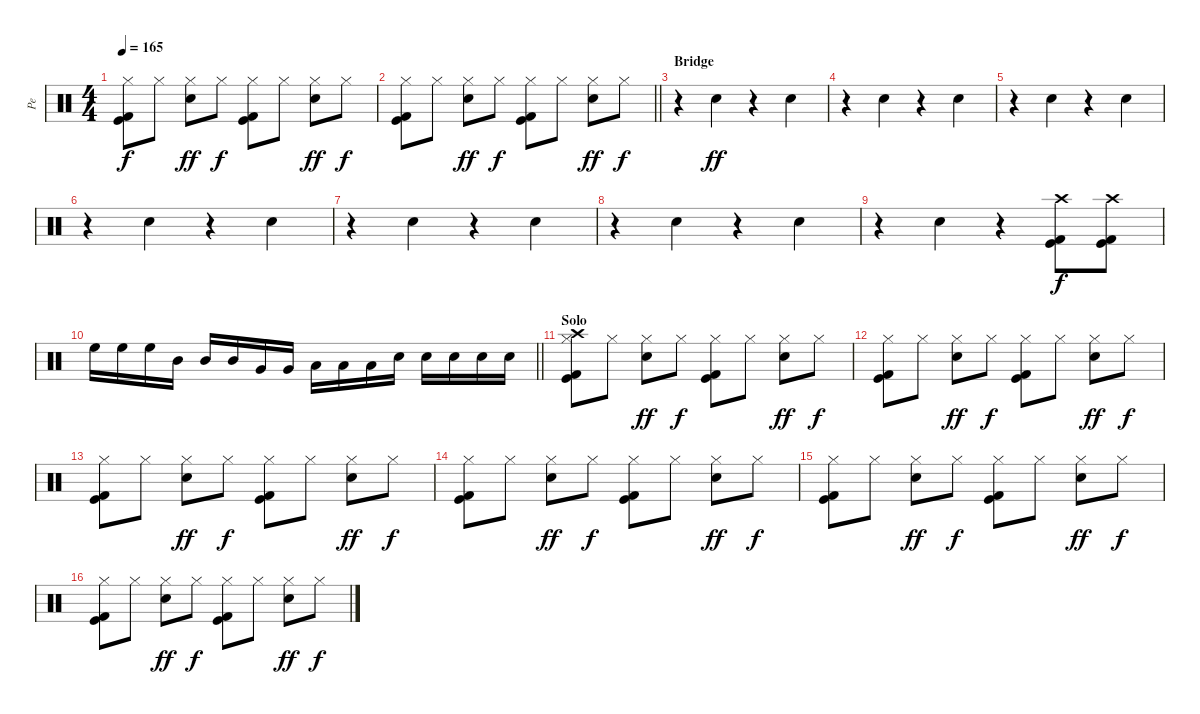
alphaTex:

\track ("Pe" "Pe") {instrument percussion}
\staff {score}
\articulation defaults
\ts (4 4)
\tempo 165
\clef neutral
\ks c
("Kick (hit)" "Hi-Hat (closed)" "Kick (hit) 2").8{dy f} "Hi-Hat (closed)".8 ("Electric Snare (hit)" "Hi-Hat (closed)").8{dy ff} "Hi-Hat (closed)".8{dy f} ("Kick (hit)" "Hi-Hat (closed)" "Kick (hit) 2").8 "Hi-Hat (closed)".8 ("Electric Snare (hit)" "Hi-Hat (closed)").8{dy ff} "Hi-Hat (closed)".8{dy f} |
\barLineRight lightlight
("Kick (hit)" "Hi-Hat (closed)" "Kick (hit) 2").8 "Hi-Hat (closed)".8 ("Electric Snare (hit)" "Hi-Hat (closed)").8{dy ff} "Hi-Hat (closed)".8{dy f} ("Kick (hit)" "Hi-Hat (closed)" "Kick (hit) 2").8 "Hi-Hat (closed)".8 ("Electric Snare (hit)" "Hi-Hat (closed)").8{dy ff} "Hi-Hat (closed)".8{dy f} |
\section ("" "Bridge")
r.4 "Electric Snare (hit)".4{dy ff} r.4 "Electric Snare (hit)".4 |
r.4 "Electric Snare (hit)".4 r.4 "Electric Snare (hit)".4 |
r.4 "Electric Snare (hit)".4 r.4 "Electric Snare (hit)".4 |
r.4 "Electric Snare (hit)".4 r.4 "Electric Snare (hit)".4 |
r.4 "Electric Snare (hit)".4 r.4 "Electric Snare (hit)".4 |
r.4 "Electric Snare (hit)".4 r.4 "Electric Snare (hit)".4 |
r.4 "Electric Snare (hit)".4 r.4 ("Crash high (hit)" "Kick (hit)" "Kick (hit) 2").8{dy f} ("Crash high (hit)" "Kick (hit)" "Kick (hit) 2").8 |
\barLineRight lightlight "High Floor Tom (hit)".16 "High Floor Tom (hit)".16 "High Floor Tom (hit)".16 "Mid Tom (hit)".16 "Mid Tom (hit)".16 "Mid Tom (hit)".16 "Very Low Tom (hit)".16 "Very Low Tom (hit)".16 "Low Floor Tom (hit)".16 "Low Floor Tom (hit)".16 "Low Floor Tom (hit)".16 "Electric Snare (hit)".16 "Electric Snare (hit)".16 "Electric Snare (hit)".16 "Electric Snare (hit)".16 "Electric Snare (hit)".16
|
\section ("" "Solo")
("Kick (hit)" "Hi-Hat (closed)" "Kick (hit) 2" "Crash high (hit)").8 "Hi-Hat (closed)".8 ("Electric Snare (hit)" "Hi-Hat (closed)").8{dy ff} "Hi-Hat (closed)".8{dy f} ("Kick (hit)" "Hi-Hat (closed)" "Kick (hit) 2").8 "Hi-Hat (closed)".8 ("Electric Snare (hit)" "Hi-Hat (closed)").8{dy ff} "Hi-Hat (closed)".8{dy f} |
("Kick (hit)" "Hi-Hat (closed)" "Kick (hit) 2").8 "Hi-Hat (closed)".8 ("Electric Snare (hit)" "Hi-Hat (closed)").8{dy ff} "Hi-Hat (closed)".8{dy f} ("Kick (hit)" "Hi-Hat (closed)" "Kick (hit) 2").8 "Hi-Hat (closed)".8 ("Electric Snare (hit)" "Hi-Hat (closed)").8{dy ff} "Hi-Hat (closed)".8{dy f} |
("Kick (hit)" "Hi-Hat (closed)" "Kick (hit) 2").8 "Hi-Hat (closed)".8 ("Electric Snare (hit)" "Hi-Hat (closed)").8{dy ff} "Hi-Hat (closed)".8{dy f} ("Kick (hit)" "Hi-Hat (closed)" "Kick (hit) 2").8 "Hi-Hat (closed)".8 ("Electric Snare (hit)" "Hi-Hat (closed)").8{dy ff} "Hi-Hat (closed)".8{dy f} |
("Kick (hit)" "Hi-Hat (closed)" "Kick (hit) 2").8 "Hi-Hat (closed)".8 ("Electric Snare (hit)" "Hi-Hat (closed)").8{dy ff} "Hi-Hat (closed)".8{dy f} ("Kick (hit)" "Hi-Hat (closed)" "Kick (hit) 2").8 "Hi-Hat (closed)".8 ("Electric Snare (hit)" "Hi-Hat (closed)").8{dy ff} "Hi-Hat (closed)".8{dy f} |
("Kick (hit)" "Hi-Hat (closed)" "Kick (hit) 2").8 "Hi-Hat (closed)".8 ("Electric Snare (hit)" "Hi-Hat (closed)").8{dy ff} "Hi-Hat (closed)".8{dy f} ("Kick (hit)" "Hi-Hat (closed)" "Kick (hit) 2").8 "Hi-Hat (closed)".8 ("Electric Snare (hit)" "Hi-Hat (closed)").8{dy ff} "Hi-Hat (closed)".8{dy f} |
("Kick (hit)" "Hi-Hat (closed)" "Kick (hit) 2").8 "Hi-Hat (closed)".8 ("Electric Snare (hit)" "Hi-Hat (closed)").8{dy ff} "Hi-Hat (closed)".8{dy f} ("Kick (hit)" "Hi-Hat (closed)" "Kick (hit) 2").8 "Hi-Hat (closed)".8 ("Electric Snare (hit)" "Hi-Hat (closed)").8{dy ff} "Hi-Hat (closed)".8{dy f}
